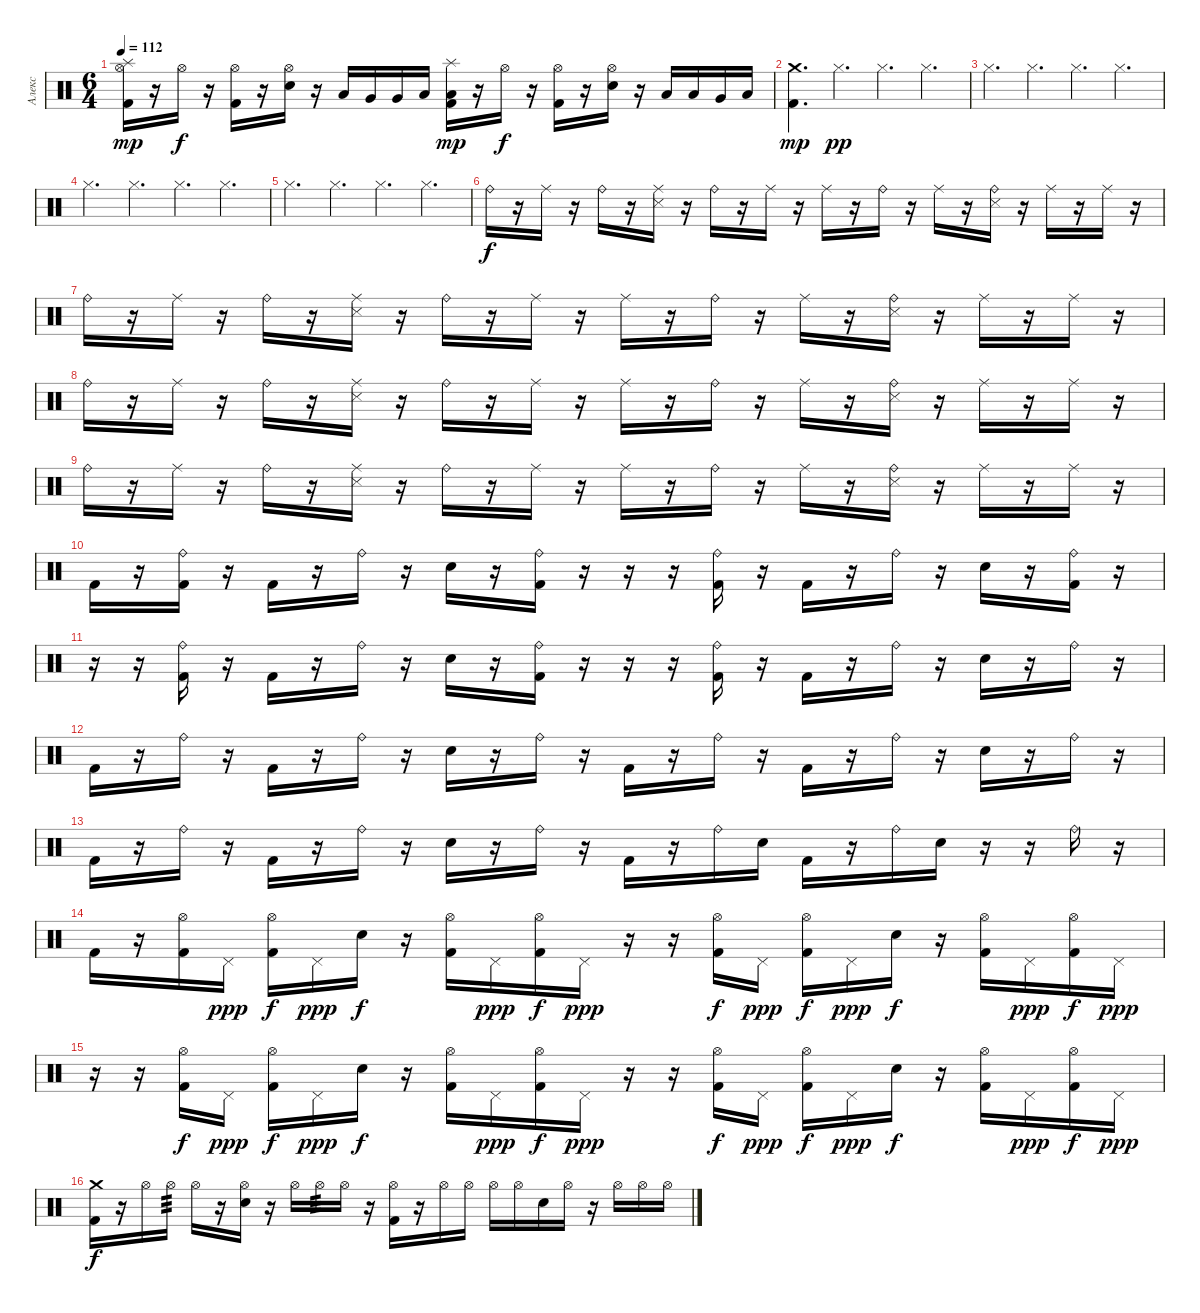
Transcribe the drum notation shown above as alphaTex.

\track ("Алекс" "Алекс") {instrument percussion}
\staff {score}
\articulation defaults
\ts (6 4)
\tempo 112
\clef neutral
\ks c
("Hi-Hat (open)" "Splash (hit)" "Kick (hit) 2").16{dy mp balance 8} r.16 "Hi-Hat (open)".16{dy f} r.16 ("Hi-Hat (open)" "Kick (hit) 2").16 r.16 ("Hi-Hat (open)" "Electric Snare (hit)").16 r.16 "Low Tom (hit)".16{balance 12} "Very Low Tom (hit)".16{balance 8} "Very Low Tom (hit)".16{balance 11} "Low Floor Tom (hit)".16{balance 5} ("Splash (hit)" "Low Floor Tom (hit)" "Kick (hit) 2").16{dy mp balance 5} r.16{balance 8} "Hi-Hat (open)".16{dy f} r.16 ("Hi-Hat (open)" "Kick (hit) 2").16 r.16 ("Hi-Hat (open)" "Electric Snare (hit)").16 r.16{balance 4} "Low Tom (hit)".16{balance 4} "Low Tom (hit)".16{balance 11} "Very Low Tom (hit)".16{balance 4} "Low Floor Tom (hit)".16{balance 5} |
("Crash medium (hit)" "Kick (hit) 2").4{d dy mp} "Hi-Hat (closed)".4{d dy pp} "Hi-Hat (closed)".4{d} "Hi-Hat (closed)".4{d} |
"Hi-Hat (closed)".4{d} "Hi-Hat (closed)".4{d} "Hi-Hat (closed)".4{d} "Hi-Hat (closed)".4{d} |
"Hi-Hat (closed)".4{d} "Hi-Hat (closed)".4{d} "Hi-Hat (closed)".4{d} "Hi-Hat (closed)".4{d} |
"Hi-Hat (closed)".4{d} "Hi-Hat (closed)".4{d} "Hi-Hat (closed)".4{d} "Hi-Hat (closed)".4{d} |
"Ride (bell)".16{dy f} r.16 "Ride (middle)".16 r.16 "Ride (bell)".16 r.16 ("Ride (middle)" "Snare (side stick) 3").16 r.16 "Ride (bell)".16 r.16 "Ride (middle)".16 r.16 "Ride (middle)".16 r.16 "Ride (bell)".16 r.16 "Ride (middle)".16 r.16 ("Ride (bell)" "Snare (side stick) 3").16 r.16 "Ride (middle)".16 r.16 "Ride (middle)".16 r.16 |
"Ride (bell)".16 r.16 "Ride (middle)".16 r.16 "Ride (bell)".16 r.16 ("Ride (middle)" "Snare (side stick) 3").16 r.16 "Ride (bell)".16 r.16 "Ride (middle)".16 r.16 "Ride (middle)".16 r.16 "Ride (bell)".16 r.16 "Ride (middle)".16 r.16 ("Ride (bell)" "Snare (side stick) 3").16 r.16 "Ride (middle)".16 r.16 "Ride (middle)".16 r.16 |
"Ride (bell)".16 r.16 "Ride (middle)".16 r.16 "Ride (bell)".16 r.16 ("Ride (middle)" "Snare (side stick) 3").16 r.16 "Ride (bell)".16 r.16 "Ride (middle)".16 r.16 "Ride (middle)".16 r.16 "Ride (bell)".16 r.16 "Ride (middle)".16 r.16 ("Ride (bell)" "Snare (side stick) 3").16 r.16 "Ride (middle)".16 r.16 "Ride (middle)".16 r.16 |
"Ride (bell)".16 r.16 "Ride (middle)".16 r.16 "Ride (bell)".16 r.16 ("Ride (middle)" "Snare (side stick) 3").16 r.16 "Ride (bell)".16 r.16 "Ride (middle)".16 r.16 "Ride (middle)".16 r.16 "Ride (bell)".16 r.16 "Ride (middle)".16 r.16 ("Ride (bell)" "Snare (side stick) 3").16 r.16 "Ride (middle)".16 r.16 "Ride (middle)".16 r.16 |
"Kick (hit) 2".16 r.16 ("Ride (bell)" "Kick (hit) 2").16 r.16 "Kick (hit) 2".16 r.16 "Ride (bell)".16 r.16 "Electric Snare (hit)".16 r.16 ("Ride (bell)" "Kick (hit) 2").16 r.16 r.16 r.16 ("Ride (bell)" "Kick (hit) 2").16 r.16 "Kick (hit) 2".16 r.16 "Ride (bell)".16 r.16 "Electric Snare (hit)".16 r.16 ("Ride (bell)" "Kick (hit) 2").16 r.16 |
r.16 r.16 ("Ride (bell)" "Kick (hit) 2").16 r.16 "Kick (hit) 2".16 r.16 "Ride (bell)".16 r.16 "Electric Snare (hit)".16 r.16 ("Ride (bell)" "Kick (hit) 2").16 r.16 r.16 r.16 ("Ride (bell)" "Kick (hit) 2").16 r.16 "Kick (hit) 2".16 r.16 "Ride (bell)".16 r.16 "Electric Snare (hit)".16 r.16 "Ride (bell)".16 r.16 |
"Kick (hit) 2".16 r.16 "Ride (bell)".16 r.16 "Kick (hit) 2".16 r.16 "Ride (bell)".16 r.16 "Electric Snare (hit)".16 r.16 "Ride (bell)".16 r.16 "Kick (hit) 2".16 r.16 "Ride (bell)".16 r.16 "Kick (hit) 2".16 r.16 "Ride (bell)".16 r.16 "Electric Snare (hit)".16 r.16 "Ride (bell)".16 r.16 |
"Kick (hit) 2".16 r.16 "Ride (bell)".16 r.16 "Kick (hit) 2".16 r.16 "Ride (bell)".16 r.16 "Electric Snare (hit)".16 r.16 "Ride (bell)".16 r.16 "Kick (hit) 2".16 r.16 "Ride (bell)".16 "Electric Snare (hit)".16 "Kick (hit) 2".16 r.16 "Ride (bell)".16 "Electric Snare (hit)".16 r.16 r.16 "Ride (bell)".16 r.16 |
"Kick (hit) 2".16 r.16 ("Hi-Hat (open)" "Kick (hit) 2").16 "Pedal Hi-Hat (hit)".16{dy ppp} ("Hi-Hat (open)" "Kick (hit) 2").16{dy f} "Pedal Hi-Hat (hit)".16{dy ppp} "Electric Snare (hit)".16{dy f} r.16 ("Hi-Hat (open)" "Kick (hit) 2").16 "Pedal Hi-Hat (hit)".16{dy ppp} ("Hi-Hat (open)" "Kick (hit) 2").16{dy f} "Pedal Hi-Hat (hit)".16{dy ppp} r.16 r.16 ("Hi-Hat (open)" "Kick (hit) 2").16{dy f} "Pedal Hi-Hat (hit)".16{dy ppp} ("Hi-Hat (open)" "Kick (hit) 2").16{dy f} "Pedal Hi-Hat (hit)".16{dy ppp} "Electric Snare (hit)".16{dy f} r.16 ("Hi-Hat (open)" "Kick (hit) 2").16 "Pedal Hi-Hat (hit)".16{dy ppp} ("Hi-Hat (open)" "Kick (hit) 2").16{dy f} "Pedal Hi-Hat (hit)".16{dy ppp} |
r.16 r.16 ("Hi-Hat (open)" "Kick (hit) 2").16{dy f} "Pedal Hi-Hat (hit)".16{dy ppp} ("Hi-Hat (open)" "Kick (hit) 2").16{dy f} "Pedal Hi-Hat (hit)".16{dy ppp} "Electric Snare (hit)".16{dy f} r.16 ("Hi-Hat (open)" "Kick (hit) 2").16 "Pedal Hi-Hat (hit)".16{dy ppp} ("Hi-Hat (open)" "Kick (hit) 2").16{dy f} "Pedal Hi-Hat (hit)".16{dy ppp} r.16 r.16 ("Hi-Hat (open)" "Kick (hit) 2").16{dy f} "Pedal Hi-Hat (hit)".16{dy ppp} ("Hi-Hat (open)" "Kick (hit) 2").16{dy f} "Pedal Hi-Hat (hit)".16{dy ppp} "Electric Snare (hit)".16{dy f} r.16 ("Hi-Hat (open)" "Kick (hit) 2").16 "Pedal Hi-Hat (hit)".16{dy ppp} ("Hi-Hat (open)" "Kick (hit) 2").16{dy f} "Pedal Hi-Hat (hit)".16{dy ppp} |
("Crash medium (hit)" "Kick (hit) 2").16{dy f} r.16 "Hi-Hat (open)".16 "Hi-Hat (open)".16{tp 3} "Hi-Hat (open)".16 r.16 ("Hi-Hat (open)" "Electric Snare (hit)").16 r.16 "Hi-Hat (open)".16 "Hi-Hat (open)".16{tp 3} "Hi-Hat (open)".16 r.16 ("Hi-Hat (open)" "Kick (hit) 2").16 r.16 "Hi-Hat (open)".16 "Hi-Hat (open)".16 "Hi-Hat (open)".16 "Hi-Hat (open)".16 "Electric Snare (hit)".16 "Hi-Hat (open)".16 r.16 "Hi-Hat (open)".16 "Hi-Hat (open)".16 "Hi-Hat (open)".16
